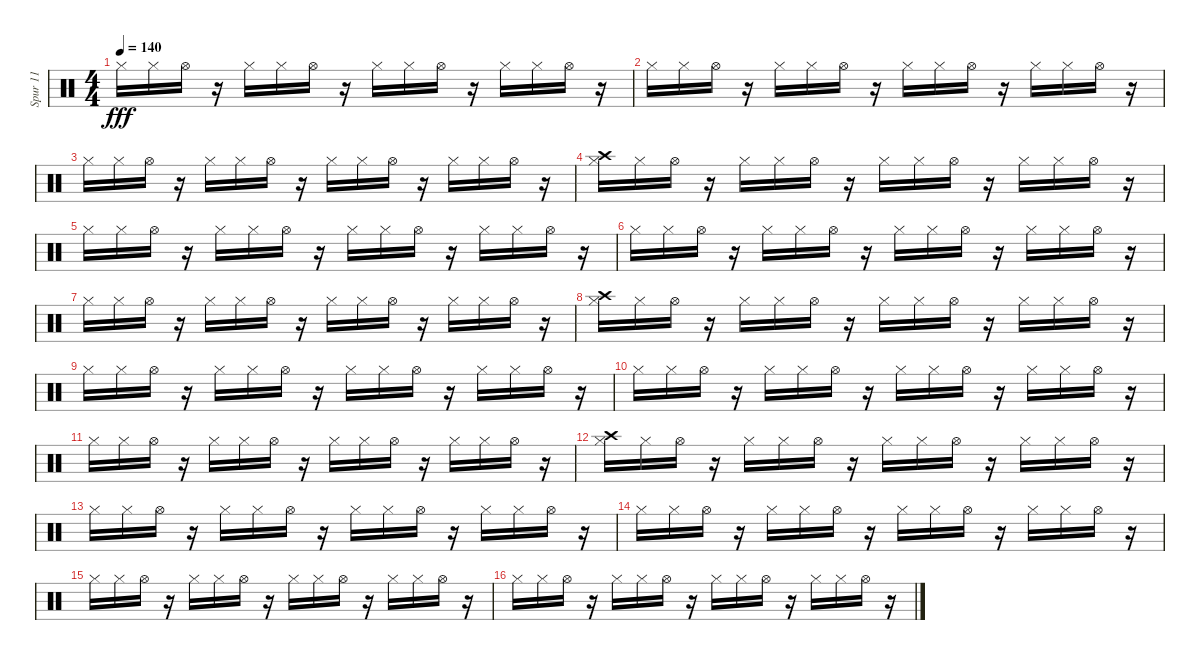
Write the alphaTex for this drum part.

\track ("Spur 11" "Spur 11") {instrument percussion}
\staff {score}
\articulation defaults
\ts (4 4)
\tempo 140
\clef neutral
\ks c "Hi-Hat (closed)".16{dy fff} "Hi-Hat (closed)".16 "Hi-Hat (open)".16
r.16 "Hi-Hat (closed)".16 "Hi-Hat (closed)".16 "Hi-Hat (open)".16 r.16 "Hi-Hat (closed)".16 "Hi-Hat (closed)".16 "Hi-Hat (open)".16 r.16 "Hi-Hat (closed)".16 "Hi-Hat (closed)".16 "Hi-Hat (open)".16 r.16 |
"Hi-Hat (closed)".16 "Hi-Hat (closed)".16 "Hi-Hat (open)".16 r.16 "Hi-Hat (closed)".16 "Hi-Hat (closed)".16 "Hi-Hat (open)".16 r.16 "Hi-Hat (closed)".16 "Hi-Hat (closed)".16 "Hi-Hat (open)".16 r.16 "Hi-Hat (closed)".16 "Hi-Hat (closed)".16 "Hi-Hat (open)".16 r.16 |
"Hi-Hat (closed)".16 "Hi-Hat (closed)".16 "Hi-Hat (open)".16 r.16 "Hi-Hat (closed)".16 "Hi-Hat (closed)".16 "Hi-Hat (open)".16 r.16 "Hi-Hat (closed)".16 "Hi-Hat (closed)".16 "Hi-Hat (open)".16 r.16 "Hi-Hat (closed)".16 "Hi-Hat (closed)".16 "Hi-Hat (open)".16 r.16 |
("Crash high (hit)" "Hi-Hat (closed)").16 "Hi-Hat (closed)".16 "Hi-Hat (open)".16 r.16 "Hi-Hat (closed)".16 "Hi-Hat (closed)".16 "Hi-Hat (open)".16 r.16 "Hi-Hat (closed)".16 "Hi-Hat (closed)".16 "Hi-Hat (open)".16 r.16 "Hi-Hat (closed)".16 "Hi-Hat (closed)".16 "Hi-Hat (open)".16 r.16 |
"Hi-Hat (closed)".16 "Hi-Hat (closed)".16 "Hi-Hat (open)".16 r.16 "Hi-Hat (closed)".16 "Hi-Hat (closed)".16 "Hi-Hat (open)".16 r.16 "Hi-Hat (closed)".16 "Hi-Hat (closed)".16 "Hi-Hat (open)".16 r.16 "Hi-Hat (closed)".16 "Hi-Hat (closed)".16 "Hi-Hat (open)".16 r.16 |
"Hi-Hat (closed)".16 "Hi-Hat (closed)".16 "Hi-Hat (open)".16 r.16 "Hi-Hat (closed)".16 "Hi-Hat (closed)".16 "Hi-Hat (open)".16 r.16 "Hi-Hat (closed)".16 "Hi-Hat (closed)".16 "Hi-Hat (open)".16 r.16 "Hi-Hat (closed)".16 "Hi-Hat (closed)".16 "Hi-Hat (open)".16 r.16 |
"Hi-Hat (closed)".16 "Hi-Hat (closed)".16 "Hi-Hat (open)".16 r.16 "Hi-Hat (closed)".16 "Hi-Hat (closed)".16 "Hi-Hat (open)".16 r.16 "Hi-Hat (closed)".16 "Hi-Hat (closed)".16 "Hi-Hat (open)".16 r.16 "Hi-Hat (closed)".16 "Hi-Hat (closed)".16 "Hi-Hat (open)".16 r.16 |
("Crash high (hit)" "Hi-Hat (closed)").16 "Hi-Hat (closed)".16 "Hi-Hat (open)".16 r.16 "Hi-Hat (closed)".16 "Hi-Hat (closed)".16 "Hi-Hat (open)".16 r.16 "Hi-Hat (closed)".16 "Hi-Hat (closed)".16 "Hi-Hat (open)".16 r.16 "Hi-Hat (closed)".16 "Hi-Hat (closed)".16 "Hi-Hat (open)".16 r.16 |
"Hi-Hat (closed)".16 "Hi-Hat (closed)".16 "Hi-Hat (open)".16 r.16 "Hi-Hat (closed)".16 "Hi-Hat (closed)".16 "Hi-Hat (open)".16 r.16 "Hi-Hat (closed)".16 "Hi-Hat (closed)".16 "Hi-Hat (open)".16 r.16 "Hi-Hat (closed)".16 "Hi-Hat (closed)".16 "Hi-Hat (open)".16 r.16 |
"Hi-Hat (closed)".16 "Hi-Hat (closed)".16 "Hi-Hat (open)".16 r.16 "Hi-Hat (closed)".16 "Hi-Hat (closed)".16 "Hi-Hat (open)".16 r.16 "Hi-Hat (closed)".16 "Hi-Hat (closed)".16 "Hi-Hat (open)".16 r.16 "Hi-Hat (closed)".16 "Hi-Hat (closed)".16 "Hi-Hat (open)".16 r.16 |
"Hi-Hat (closed)".16 "Hi-Hat (closed)".16 "Hi-Hat (open)".16 r.16 "Hi-Hat (closed)".16 "Hi-Hat (closed)".16 "Hi-Hat (open)".16 r.16 "Hi-Hat (closed)".16 "Hi-Hat (closed)".16 "Hi-Hat (open)".16 r.16 "Hi-Hat (closed)".16 "Hi-Hat (closed)".16 "Hi-Hat (open)".16 r.16 |
("Crash high (hit)" "Hi-Hat (closed)").16 "Hi-Hat (closed)".16 "Hi-Hat (open)".16 r.16 "Hi-Hat (closed)".16 "Hi-Hat (closed)".16 "Hi-Hat (open)".16 r.16 "Hi-Hat (closed)".16 "Hi-Hat (closed)".16 "Hi-Hat (open)".16 r.16 "Hi-Hat (closed)".16 "Hi-Hat (closed)".16 "Hi-Hat (open)".16 r.16 |
"Hi-Hat (closed)".16 "Hi-Hat (closed)".16 "Hi-Hat (open)".16 r.16 "Hi-Hat (closed)".16 "Hi-Hat (closed)".16 "Hi-Hat (open)".16 r.16 "Hi-Hat (closed)".16 "Hi-Hat (closed)".16 "Hi-Hat (open)".16 r.16 "Hi-Hat (closed)".16 "Hi-Hat (closed)".16 "Hi-Hat (open)".16 r.16 |
"Hi-Hat (closed)".16 "Hi-Hat (closed)".16 "Hi-Hat (open)".16 r.16 "Hi-Hat (closed)".16 "Hi-Hat (closed)".16 "Hi-Hat (open)".16 r.16 "Hi-Hat (closed)".16 "Hi-Hat (closed)".16 "Hi-Hat (open)".16 r.16 "Hi-Hat (closed)".16 "Hi-Hat (closed)".16 "Hi-Hat (open)".16 r.16 |
"Hi-Hat (closed)".16 "Hi-Hat (closed)".16 "Hi-Hat (open)".16 r.16 "Hi-Hat (closed)".16 "Hi-Hat (closed)".16 "Hi-Hat (open)".16 r.16 "Hi-Hat (closed)".16 "Hi-Hat (closed)".16 "Hi-Hat (open)".16 r.16 "Hi-Hat (closed)".16 "Hi-Hat (closed)".16 "Hi-Hat (open)".16 r.16 |
"Hi-Hat (closed)".16 "Hi-Hat (closed)".16 "Hi-Hat (open)".16 r.16 "Hi-Hat (closed)".16 "Hi-Hat (closed)".16 "Hi-Hat (open)".16 r.16 "Hi-Hat (closed)".16 "Hi-Hat (closed)".16 "Hi-Hat (open)".16 r.16 "Hi-Hat (closed)".16 "Hi-Hat (closed)".16 "Hi-Hat (open)".16 r.16
